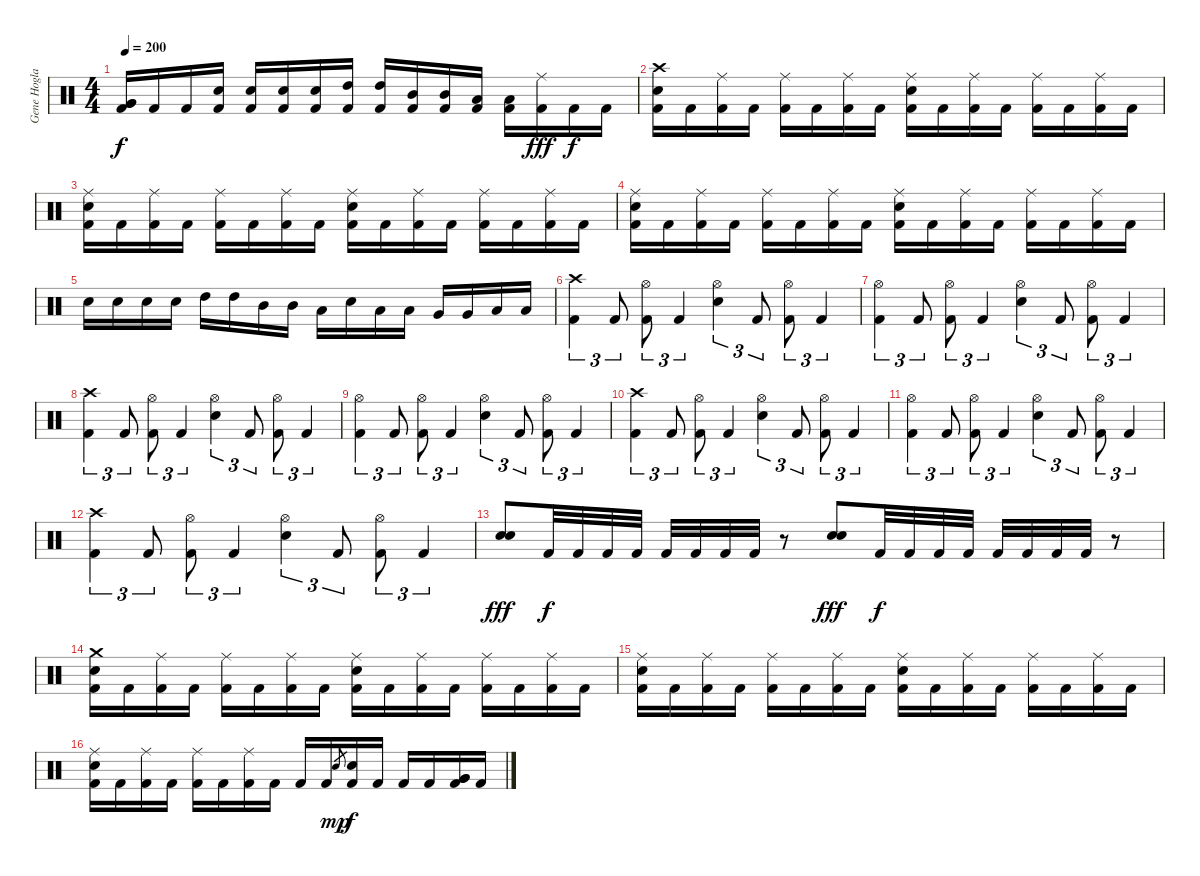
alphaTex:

\track ("Gene Hoglan" "Gene Hogla") {instrument percussion}
\staff {score}
\articulation defaults
\ts (4 4)
\tempo 200
\clef neutral
\ks c
("Very Low Tom (hit)" "Very Low Tom (hit)" "Kick (hit) 2").16{dy f} "Kick (hit) 2".16 "Kick (hit) 2".16 ("Snare (hit) 2" "Kick (hit) 2").16 ("Snare (hit) 2" "Kick (hit) 2").16 ("Snare (hit) 2" "Kick (hit) 2").16 ("Snare (hit) 2" "Kick (hit) 2").16 ("High Tom (hit)" "Kick (hit) 2").16 ("High Tom (hit)" "Kick (hit) 2").16 ("Mid Tom (hit)" "Kick (hit) 2").16 ("Mid Tom (hit)" "Kick (hit) 2").16 ("Low Tom (hit)" "Kick (hit) 2").16 ("Low Tom (hit)" "Kick (hit) 2").16 ("Ride (middle)" "Kick (hit) 2").16{dy fff} "Kick (hit) 2".16{dy f} "Kick (hit) 2".16 |
("Crash high (hit)" "Snare (hit) 2" "Kick (hit) 2").16 "Kick (hit) 2".16 ("Ride (middle)" "Kick (hit) 2").16 "Kick (hit) 2".16 ("Ride (middle)" "Kick (hit) 2").16 "Kick (hit) 2".16 ("Ride (middle)" "Kick (hit) 2").16 "Kick (hit) 2".16 ("Ride (middle)" "Snare (hit) 2" "Kick (hit) 2").16 "Kick (hit) 2".16 ("Ride (middle)" "Kick (hit) 2").16 "Kick (hit) 2".16 ("Ride (middle)" "Kick (hit) 2").16 "Kick (hit) 2".16 ("Ride (middle)" "Kick (hit) 2").16 "Kick (hit) 2".16 |
("Ride (middle)" "Snare (hit) 2" "Kick (hit) 2").16 "Kick (hit) 2".16 ("Ride (middle)" "Kick (hit) 2").16 "Kick (hit) 2".16 ("Ride (middle)" "Kick (hit) 2").16 "Kick (hit) 2".16 ("Ride (middle)" "Kick (hit) 2").16 "Kick (hit) 2".16 ("Ride (middle)" "Snare (hit) 2" "Kick (hit) 2").16 "Kick (hit) 2".16 ("Ride (middle)" "Kick (hit) 2").16 "Kick (hit) 2".16 ("Ride (middle)" "Kick (hit) 2").16 "Kick (hit) 2".16 ("Ride (middle)" "Kick (hit) 2").16 "Kick (hit) 2".16 |
("Ride (middle)" "Snare (hit) 2" "Kick (hit) 2").16 "Kick (hit) 2".16 ("Ride (middle)" "Kick (hit) 2").16 "Kick (hit) 2".16 ("Ride (middle)" "Kick (hit) 2").16 "Kick (hit) 2".16 ("Ride (middle)" "Kick (hit) 2").16 "Kick (hit) 2".16 ("Ride (middle)" "Snare (hit) 2" "Kick (hit) 2").16 "Kick (hit) 2".16 ("Ride (middle)" "Kick (hit) 2").16 "Kick (hit) 2".16 ("Ride (middle)" "Kick (hit) 2").16 "Kick (hit) 2".16 ("Ride (middle)" "Kick (hit) 2").16 "Kick (hit) 2".16 |
"Snare (hit) 2".16 "Snare (hit) 2".16 "Snare (hit) 2".16 "Snare (hit) 2".16 "High Tom (hit)".16 "High Tom (hit)".16 "Mid Tom (hit)".16 "Mid Tom (hit)".16 "Low Tom (hit)".16 "Snare (hit) 2".16 "Low Tom (hit)".16 "Low Tom (hit)".16 "Very Low Tom (hit)".16 "Very Low Tom (hit)".16 "Low Floor Tom (hit)".16 "Low Floor Tom (hit)".16 |
("Crash high (hit)" "Kick (hit) 2").4{tu (3 2)} "Kick (hit) 2".8{tu (3 2)} ("Hi-Hat (open)" "Kick (hit) 2").8{tu (3 2)} "Kick (hit) 2".4{tu (3 2)} ("Hi-Hat (open)" "Snare (hit) 2").4{tu (3 2)} "Kick (hit) 2".8{tu (3 2)} ("Hi-Hat (open)" "Kick (hit) 2").8{tu (3 2)} "Kick (hit) 2".4{tu (3 2)} |
("Hi-Hat (open)" "Kick (hit) 2").4{tu (3 2)} "Kick (hit) 2".8{tu (3 2)} ("Hi-Hat (open)" "Kick (hit) 2").8{tu (3 2)} "Kick (hit) 2".4{tu (3 2)} ("Hi-Hat (open)" "Snare (hit) 2").4{tu (3 2)} "Kick (hit) 2".8{tu (3 2)} ("Hi-Hat (open)" "Kick (hit) 2").8{tu (3 2)} "Kick (hit) 2".4{tu (3 2)} |
("Crash high (hit)" "Kick (hit) 2").4{tu (3 2)} "Kick (hit) 2".8{tu (3 2)} ("Hi-Hat (open)" "Kick (hit) 2").8{tu (3 2)} "Kick (hit) 2".4{tu (3 2)} ("Hi-Hat (open)" "Snare (hit) 2").4{tu (3 2)} "Kick (hit) 2".8{tu (3 2)} ("Hi-Hat (open)" "Kick (hit) 2").8{tu (3 2)} "Kick (hit) 2".4{tu (3 2)} |
("Hi-Hat (open)" "Kick (hit) 2").4{tu (3 2)} "Kick (hit) 2".8{tu (3 2)} ("Hi-Hat (open)" "Kick (hit) 2").8{tu (3 2)} "Kick (hit) 2".4{tu (3 2)} ("Hi-Hat (open)" "Snare (hit) 2").4{tu (3 2)} "Kick (hit) 2".8{tu (3 2)} ("Hi-Hat (open)" "Kick (hit) 2").8{tu (3 2)} "Kick (hit) 2".4{tu (3 2)} |
("Crash high (hit)" "Kick (hit) 2").4{tu (3 2)} "Kick (hit) 2".8{tu (3 2)} ("Hi-Hat (open)" "Kick (hit) 2").8{tu (3 2)} "Kick (hit) 2".4{tu (3 2)} ("Hi-Hat (open)" "Snare (hit) 2").4{tu (3 2)} "Kick (hit) 2".8{tu (3 2)} ("Hi-Hat (open)" "Kick (hit) 2").8{tu (3 2)} "Kick (hit) 2".4{tu (3 2)} |
("Hi-Hat (open)" "Kick (hit) 2").4{tu (3 2)} "Kick (hit) 2".8{tu (3 2)} ("Hi-Hat (open)" "Kick (hit) 2").8{tu (3 2)} "Kick (hit) 2".4{tu (3 2)} ("Hi-Hat (open)" "Snare (hit) 2").4{tu (3 2)} "Kick (hit) 2".8{tu (3 2)} ("Hi-Hat (open)" "Kick (hit) 2").8{tu (3 2)} "Kick (hit) 2".4{tu (3 2)} |
("Crash high (hit)" "Kick (hit) 2").4{tu (3 2)} "Kick (hit) 2".8{tu (3 2)} ("Hi-Hat (open)" "Kick (hit) 2").8{tu (3 2)} "Kick (hit) 2".4{tu (3 2)} ("Hi-Hat (open)" "Snare (hit) 2").4{tu (3 2)} "Kick (hit) 2".8{tu (3 2)} ("Hi-Hat (open)" "Kick (hit) 2").8{tu (3 2)} "Kick (hit) 2".4{tu (3 2)} |
("Snare (hit) 2" "Snare (hit) 2").8{dy fff} "Kick (hit) 2".32{dy f} "Kick (hit) 2".32 "Kick (hit) 2".32 "Kick (hit) 2".32 "Kick (hit) 2".32 "Kick (hit) 2".32 "Kick (hit) 2".32 "Kick (hit) 2".32 r.8 ("Snare (hit) 2" "Snare (hit) 2").8{dy fff} "Kick (hit) 2".32{dy f} "Kick (hit) 2".32 "Kick (hit) 2".32 "Kick (hit) 2".32 "Kick (hit) 2".32 "Kick (hit) 2".32 "Kick (hit) 2".32 "Kick (hit) 2".32 r.8 |
("Crash medium (hit)" "Snare (hit) 2" "Kick (hit) 2").16 "Kick (hit) 2".16 ("Ride (middle)" "Kick (hit) 2").16 "Kick (hit) 2".16 ("Ride (middle)" "Kick (hit) 2").16 "Kick (hit) 2".16 ("Ride (middle)" "Kick (hit) 2").16 "Kick (hit) 2".16 ("Ride (middle)" "Snare (hit) 2" "Kick (hit) 2").16 "Kick (hit) 2".16 ("Ride (middle)" "Kick (hit) 2").16 "Kick (hit) 2".16 ("Ride (middle)" "Kick (hit) 2").16 "Kick (hit) 2".16 ("Ride (middle)" "Kick (hit) 2").16 "Kick (hit) 2".16 |
("Ride (middle)" "Snare (hit) 2" "Kick (hit) 2").16 "Kick (hit) 2".16 ("Ride (middle)" "Kick (hit) 2").16 "Kick (hit) 2".16 ("Ride (middle)" "Kick (hit) 2").16 "Kick (hit) 2".16 ("Ride (middle)" "Kick (hit) 2").16 "Kick (hit) 2".16 ("Ride (middle)" "Snare (hit) 2" "Kick (hit) 2").16 "Kick (hit) 2".16 ("Ride (middle)" "Kick (hit) 2").16 "Kick (hit) 2".16 ("Ride (middle)" "Kick (hit) 2").16 "Kick (hit) 2".16 ("Ride (middle)" "Kick (hit) 2").16 "Kick (hit) 2".16 |
("Ride (middle)" "Snare (hit) 2" "Kick (hit) 2").16 "Kick (hit) 2".16 ("Ride (middle)" "Kick (hit) 2").16 "Kick (hit) 2".16 ("Ride (middle)" "Kick (hit) 2").16 "Kick (hit) 2".16 ("Ride (middle)" "Kick (hit) 2").16 "Kick (hit) 2".16 "Kick (hit) 2".16 "Kick (hit) 2".16 "Snare (hit) 2".8{gr dy mp} ("Snare (hit) 2" "Kick (hit) 2").16{dy f} "Kick (hit) 2".16 "Kick (hit) 2".16 "Kick (hit) 2".16 ("Very Low Tom (hit)" "Very Low Tom (hit)" "Kick (hit) 2").16 "Kick (hit) 2".16
